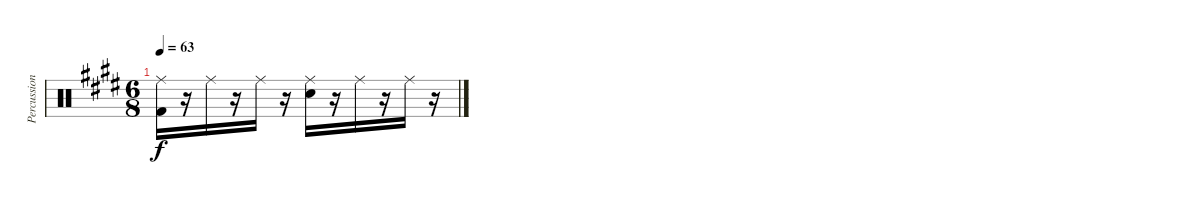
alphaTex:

\track ("Percussion" "Percussion") {instrument percussion}
\staff {score}
\articulation defaults
\ts (6 8)
\tempo 63
\clef neutral
\ks e
("Ride (middle)" "Kick (hit) 2").16{dy f} r.16 "Ride (middle)".16 r.16 "Ride (middle)".16 r.16 ("Ride (middle)" "Electric Snare (hit)").16 r.16 "Ride (middle)".16 r.16 "Ride (middle)".16 r.16
